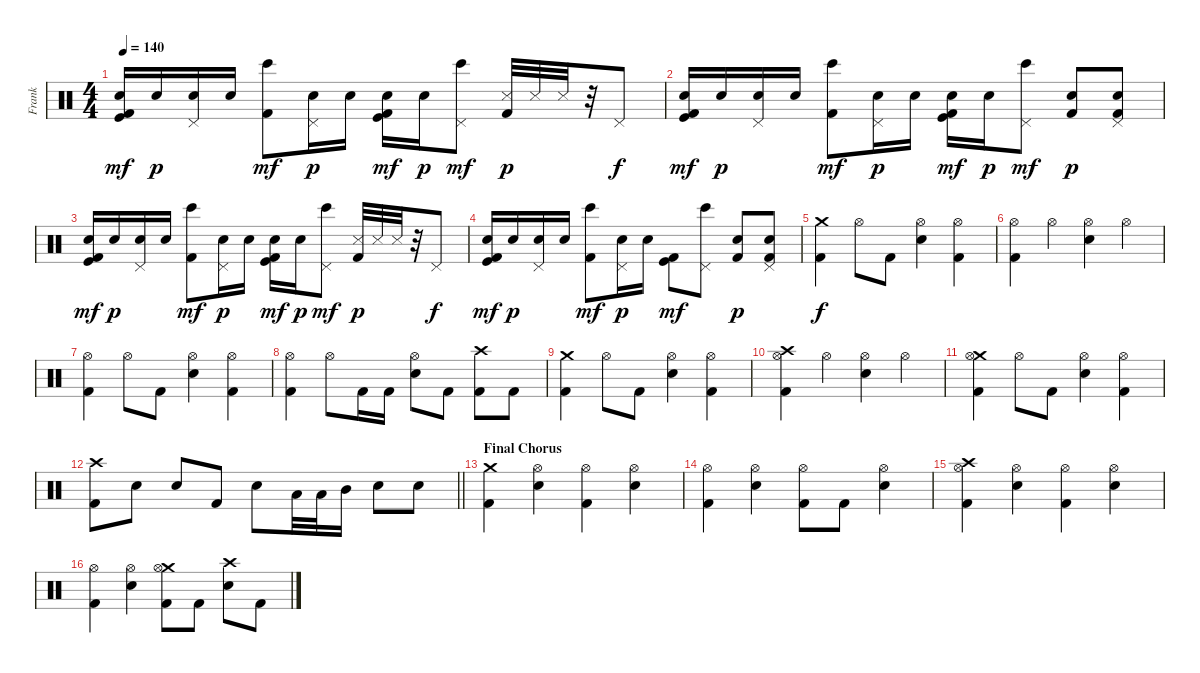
\track ("Frank" "Frank") {instrument percussion}
\staff {score}
\articulation defaults
\ts (4 4)
\tempo 140
\clef neutral
\ks c
("Kick (hit) 2" "Electric Snare (hit)" "Kick (hit)").16{dy mf} "Electric Snare (hit)".16{dy p} ("Pedal Hi-Hat (hit)" "Electric Snare (hit)").16 "Electric Snare (hit)".16 ("Kick (hit) 2" "Bongo High (hit)").8{dy mf} ("Pedal Hi-Hat (hit)" "Electric Snare (hit)").16{dy p} "Electric Snare (hit)".16 ("Kick (hit) 2" "Electric Snare (hit)" "Kick (hit)").16{dy mf} "Electric Snare (hit)".16{dy p} ("Pedal Hi-Hat (hit)" "Bongo High (hit)").8{dy mf} ("Kick (hit) 2" "Snare (side stick) 3").32{dy p} "Snare (side stick) 3".32 "Snare (side stick) 3".32 r.32 "Pedal Hi-Hat (hit)".8{dy f} |
("Kick (hit) 2" "Electric Snare (hit)" "Kick (hit)").16{dy mf} "Electric Snare (hit)".16{dy p} ("Pedal Hi-Hat (hit)" "Electric Snare (hit)").16 "Electric Snare (hit)".16 ("Kick (hit) 2" "Bongo High (hit)").8{dy mf} ("Pedal Hi-Hat (hit)" "Electric Snare (hit)").16{dy p} "Electric Snare (hit)".16 ("Kick (hit) 2" "Electric Snare (hit)" "Kick (hit)").16{dy mf} "Electric Snare (hit)".16{dy p} ("Pedal Hi-Hat (hit)" "Bongo High (hit)").8{dy mf} ("Kick (hit) 2" "Electric Snare (hit)").8{dy p} ("Pedal Hi-Hat (hit)" "Kick (hit) 2" "Electric Snare (hit)").8 |
("Kick (hit) 2" "Electric Snare (hit)" "Kick (hit)").16{dy mf} "Electric Snare (hit)".16{dy p} ("Pedal Hi-Hat (hit)" "Electric Snare (hit)").16 "Electric Snare (hit)".16 ("Kick (hit) 2" "Bongo High (hit)").8{dy mf} ("Pedal Hi-Hat (hit)" "Electric Snare (hit)").16{dy p} "Electric Snare (hit)".16 ("Kick (hit) 2" "Electric Snare (hit)" "Kick (hit)").16{dy mf} "Electric Snare (hit)".16{dy p} ("Pedal Hi-Hat (hit)" "Bongo High (hit)").8{dy mf} ("Kick (hit) 2" "Snare (side stick) 3").32{dy p} "Snare (side stick) 3".32 "Snare (side stick) 3".32 r.32 "Pedal Hi-Hat (hit)".8{dy f} |
("Kick (hit) 2" "Electric Snare (hit)" "Kick (hit)").16{dy mf} "Electric Snare (hit)".16{dy p} ("Pedal Hi-Hat (hit)" "Electric Snare (hit)").16 "Electric Snare (hit)".16 ("Kick (hit) 2" "Bongo High (hit)").8{dy mf} ("Pedal Hi-Hat (hit)" "Electric Snare (hit)").16{dy p} "Electric Snare (hit)".16 ("Kick (hit) 2" "Kick (hit)").8{dy mf} ("Pedal Hi-Hat (hit)" "Bongo High (hit)").8 ("Kick (hit) 2" "Electric Snare (hit)").8{dy p} ("Pedal Hi-Hat (hit)" "Kick (hit) 2" "Electric Snare (hit)").8 |
("Crash medium (hit)" "Kick (hit) 2").4{dy f volume 15} "Hi-Hat (open)".8 "Kick (hit) 2".8 ("Hi-Hat (open)" "Snare (hit) 2").4 ("Hi-Hat (open)" "Kick (hit) 2").4 |
("Hi-Hat (open)" "Kick (hit) 2").4 "Hi-Hat (open)".4 ("Hi-Hat (open)" "Snare (hit) 2").4 "Hi-Hat (open)".4 |
("Hi-Hat (open)" "Kick (hit) 2").4 "Hi-Hat (open)".8 "Kick (hit) 2".8 ("Hi-Hat (open)" "Snare (hit) 2").4 ("Hi-Hat (open)" "Kick (hit) 2").4 |
("Hi-Hat (open)" "Kick (hit) 2").4 "Hi-Hat (open)".8 "Kick (hit) 2".16 "Kick (hit) 2".16 ("Hi-Hat (open)" "Snare (hit) 2").8 "Kick (hit) 2".8 ("Crash high (hit)" "Kick (hit) 2").8 "Kick (hit) 2".8 |
("Crash medium (hit)" "Kick (hit) 2").4 "Hi-Hat (open)".8 "Kick (hit) 2".8 ("Hi-Hat (open)" "Snare (hit) 2").4 ("Hi-Hat (open)" "Kick (hit) 2").4 |
("Crash high (hit)" "Hi-Hat (open)" "Kick (hit) 2").4 "Hi-Hat (open)".4 ("Hi-Hat (open)" "Snare (hit) 2").4 "Hi-Hat (open)".4 |
("Crash medium (hit)" "Hi-Hat (open)" "Kick (hit) 2").4 "Hi-Hat (open)".8 "Kick (hit) 2".8 ("Hi-Hat (open)" "Snare (hit) 2").4 ("Hi-Hat (open)" "Kick (hit) 2").4 |
\barLineRight lightlight
("Crash high (hit)" "Kick (hit) 2").8 "Snare (hit) 2".8 "Snare (hit) 2".8 "Kick (hit) 2".8 "Snare (hit) 2".8 "Low Tom (hit)".32 "Low Tom (hit)".32 "Mid Tom (hit)".16 "Snare (hit) 2".8 "Snare (hit) 2".8 |
\section ("" "Final Chorus")
("Crash medium (hit)" "Kick (hit) 2").4 ("Hi-Hat (open)" "Snare (hit) 2").4 ("Hi-Hat (open)" "Kick (hit) 2").4 ("Hi-Hat (open)" "Snare (hit) 2").4 |
("Hi-Hat (open)" "Kick (hit) 2").4 ("Hi-Hat (open)" "Snare (hit) 2").4 ("Hi-Hat (open)" "Kick (hit) 2").8 "Kick (hit) 2".8 ("Hi-Hat (open)" "Snare (hit) 2").4 |
("Crash high (hit)" "Hi-Hat (open)" "Kick (hit) 2").4 ("Hi-Hat (open)" "Snare (hit) 2").4 ("Hi-Hat (open)" "Kick (hit) 2").4 ("Hi-Hat (open)" "Snare (hit) 2").4 |
("Hi-Hat (open)" "Kick (hit) 2").4 ("Hi-Hat (open)" "Snare (hit) 2").4 ("Crash medium (hit)" "Hi-Hat (open)" "Kick (hit) 2").8 "Kick (hit) 2".8 ("Crash high (hit)" "Snare (hit) 2").8 "Kick (hit) 2".8
